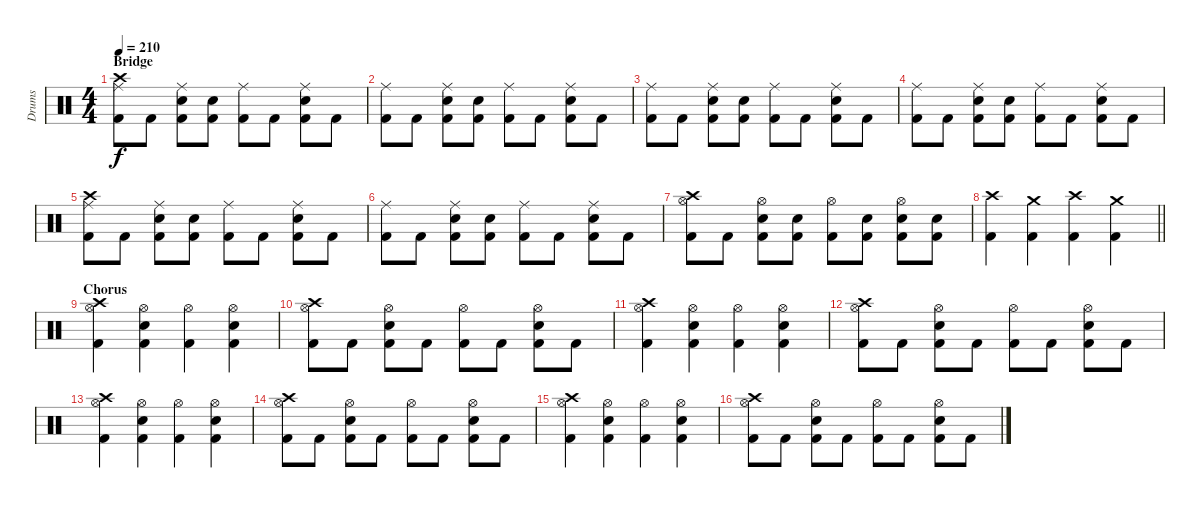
\track ("Drums" "Drums") {instrument percussion}
\staff {score}
\articulation defaults
\ts (4 4)
\section ("" "Bridge")
\tempo 210
\clef neutral
\ks c
("Crash high (hit)" "Ride (middle)" "Kick (hit) 2").8{dy f} "Kick (hit) 2".8 ("Ride (middle)" "Snare (hit) 2" "Kick (hit) 2").8 ("Snare (hit) 2" "Kick (hit) 2").8 ("Ride (middle)" "Kick (hit) 2").8 "Kick (hit) 2".8 ("Ride (middle)" "Snare (hit) 2" "Kick (hit) 2").8 "Kick (hit) 2".8 |
("Ride (middle)" "Kick (hit) 2").8 "Kick (hit) 2".8 ("Ride (middle)" "Snare (hit) 2" "Kick (hit) 2").8 ("Snare (hit) 2" "Kick (hit) 2").8 ("Ride (middle)" "Kick (hit) 2").8 "Kick (hit) 2".8 ("Ride (middle)" "Snare (hit) 2" "Kick (hit) 2").8 "Kick (hit) 2".8 |
("Ride (middle)" "Kick (hit) 2").8 "Kick (hit) 2".8 ("Ride (middle)" "Snare (hit) 2" "Kick (hit) 2").8 ("Snare (hit) 2" "Kick (hit) 2").8 ("Ride (middle)" "Kick (hit) 2").8 "Kick (hit) 2".8 ("Ride (middle)" "Snare (hit) 2" "Kick (hit) 2").8 "Kick (hit) 2".8 |
("Ride (middle)" "Kick (hit) 2").8 "Kick (hit) 2".8 ("Ride (middle)" "Snare (hit) 2" "Kick (hit) 2").8 ("Snare (hit) 2" "Kick (hit) 2").8 ("Ride (middle)" "Kick (hit) 2").8 "Kick (hit) 2".8 ("Ride (middle)" "Snare (hit) 2" "Kick (hit) 2").8 "Kick (hit) 2".8 |
("Crash high (hit)" "Ride (middle)" "Kick (hit) 2").8 "Kick (hit) 2".8 ("Ride (middle)" "Snare (hit) 2" "Kick (hit) 2").8 ("Snare (hit) 2" "Kick (hit) 2").8 ("Ride (middle)" "Kick (hit) 2").8 "Kick (hit) 2".8 ("Ride (middle)" "Snare (hit) 2" "Kick (hit) 2").8 "Kick (hit) 2".8 |
("Ride (middle)" "Kick (hit) 2").8 "Kick (hit) 2".8 ("Ride (middle)" "Snare (hit) 2" "Kick (hit) 2").8 ("Snare (hit) 2" "Kick (hit) 2").8 ("Ride (middle)" "Kick (hit) 2").8 "Kick (hit) 2".8 ("Ride (middle)" "Snare (hit) 2" "Kick (hit) 2").8 "Kick (hit) 2".8 |
("Crash high (hit)" "Hi-Hat (open)" "Kick (hit) 2").8 "Kick (hit) 2".8 ("Hi-Hat (open)" "Snare (hit) 2" "Kick (hit) 2").8 ("Snare (hit) 2" "Kick (hit) 2").8 ("Hi-Hat (open)" "Kick (hit) 2").8 ("Snare (hit) 2" "Kick (hit) 2").8 ("Hi-Hat (open)" "Snare (hit) 2" "Kick (hit) 2").8 ("Snare (hit) 2" "Kick (hit) 2").8 |
\barLineRight lightlight
("Crash high (hit)" "Kick (hit) 2").4 ("Crash medium (hit)" "Kick (hit) 2").4 ("Crash high (hit)" "Kick (hit) 2").4 ("Crash medium (hit)" "Kick (hit) 2").4 |
\section ("" "Chorus")
("Crash high (hit)" "Hi-Hat (open)" "Kick (hit) 2").4 ("Hi-Hat (open)" "Snare (hit) 2" "Kick (hit) 2").4 ("Hi-Hat (open)" "Kick (hit) 2").4 ("Hi-Hat (open)" "Snare (hit) 2" "Kick (hit) 2").4 |
("Crash high (hit)" "Hi-Hat (open)" "Kick (hit) 2").8 "Kick (hit) 2".8 ("Hi-Hat (open)" "Snare (hit) 2" "Kick (hit) 2").8 "Kick (hit) 2".8 ("Hi-Hat (open)" "Kick (hit) 2").8 "Kick (hit) 2".8 ("Hi-Hat (open)" "Snare (hit) 2" "Kick (hit) 2").8 "Kick (hit) 2".8 |
("Crash high (hit)" "Hi-Hat (open)" "Kick (hit) 2").4 ("Hi-Hat (open)" "Snare (hit) 2" "Kick (hit) 2").4 ("Hi-Hat (open)" "Kick (hit) 2").4 ("Hi-Hat (open)" "Snare (hit) 2" "Kick (hit) 2").4 |
("Crash high (hit)" "Hi-Hat (open)" "Kick (hit) 2").8 "Kick (hit) 2".8 ("Hi-Hat (open)" "Snare (hit) 2" "Kick (hit) 2").8 "Kick (hit) 2".8 ("Hi-Hat (open)" "Kick (hit) 2").8 "Kick (hit) 2".8 ("Hi-Hat (open)" "Snare (hit) 2" "Kick (hit) 2").8 "Kick (hit) 2".8 |
("Crash high (hit)" "Hi-Hat (open)" "Kick (hit) 2").4 ("Hi-Hat (open)" "Snare (hit) 2" "Kick (hit) 2").4 ("Hi-Hat (open)" "Kick (hit) 2").4 ("Hi-Hat (open)" "Snare (hit) 2" "Kick (hit) 2").4 |
("Crash high (hit)" "Hi-Hat (open)" "Kick (hit) 2").8 "Kick (hit) 2".8 ("Hi-Hat (open)" "Snare (hit) 2" "Kick (hit) 2").8 "Kick (hit) 2".8 ("Hi-Hat (open)" "Kick (hit) 2").8 "Kick (hit) 2".8 ("Hi-Hat (open)" "Snare (hit) 2" "Kick (hit) 2").8 "Kick (hit) 2".8 |
("Crash high (hit)" "Hi-Hat (open)" "Kick (hit) 2").4 ("Hi-Hat (open)" "Snare (hit) 2" "Kick (hit) 2").4 ("Hi-Hat (open)" "Kick (hit) 2").4 ("Hi-Hat (open)" "Snare (hit) 2" "Kick (hit) 2").4 |
("Crash high (hit)" "Hi-Hat (open)" "Kick (hit) 2").8 "Kick (hit) 2".8 ("Hi-Hat (open)" "Snare (hit) 2" "Kick (hit) 2").8 "Kick (hit) 2".8 ("Hi-Hat (open)" "Kick (hit) 2").8 "Kick (hit) 2".8 ("Hi-Hat (open)" "Snare (hit) 2" "Kick (hit) 2").8 "Kick (hit) 2".8
